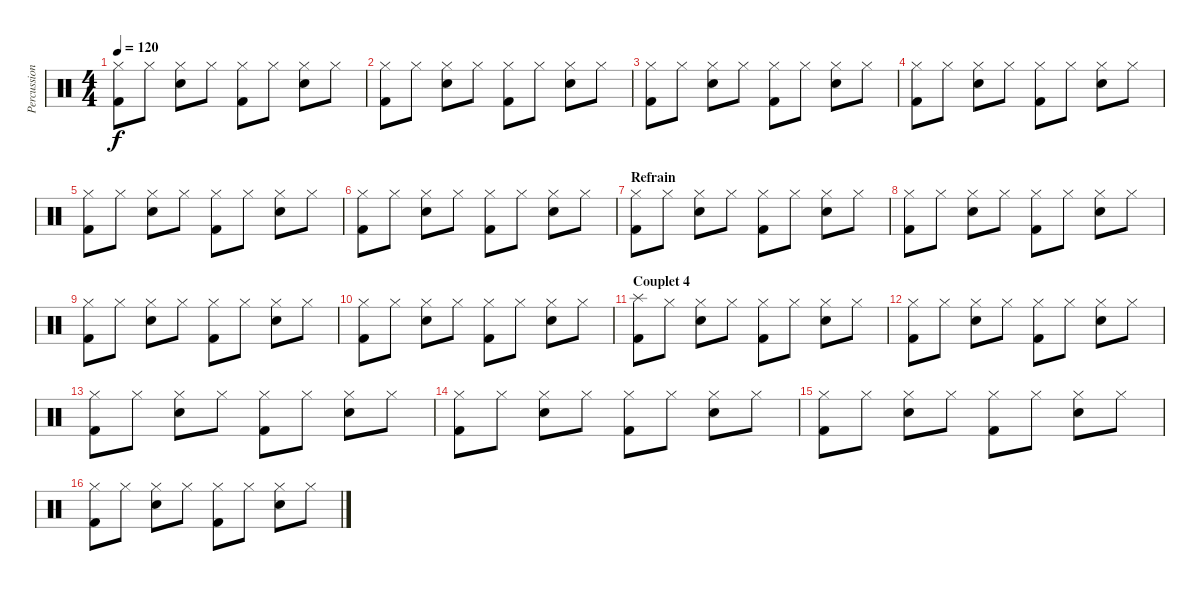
\track ("Percussions" "Percussion") {instrument percussion}
\staff {score}
\articulation defaults
\ts (4 4)
\tempo 120
\clef neutral
\ks c
("Kick (hit) 2" "Hi-Hat (closed)").8{dy f} "Hi-Hat (closed)".8 ("Electric Snare (hit)" "Hi-Hat (closed)").8 "Hi-Hat (closed)".8 ("Kick (hit) 2" "Hi-Hat (closed)").8 "Hi-Hat (closed)".8 ("Electric Snare (hit)" "Hi-Hat (closed)").8 "Hi-Hat (closed)".8 |
("Kick (hit) 2" "Hi-Hat (closed)").8 "Hi-Hat (closed)".8 ("Electric Snare (hit)" "Hi-Hat (closed)").8 "Hi-Hat (closed)".8 ("Kick (hit) 2" "Hi-Hat (closed)").8 "Hi-Hat (closed)".8 ("Electric Snare (hit)" "Hi-Hat (closed)").8 "Hi-Hat (closed)".8 |
("Kick (hit) 2" "Hi-Hat (closed)").8 "Hi-Hat (closed)".8 ("Electric Snare (hit)" "Hi-Hat (closed)").8 "Hi-Hat (closed)".8 ("Kick (hit) 2" "Hi-Hat (closed)").8 "Hi-Hat (closed)".8 ("Electric Snare (hit)" "Hi-Hat (closed)").8 "Hi-Hat (closed)".8 |
("Kick (hit) 2" "Hi-Hat (closed)").8 "Hi-Hat (closed)".8 ("Electric Snare (hit)" "Hi-Hat (closed)").8 "Hi-Hat (closed)".8 ("Kick (hit) 2" "Hi-Hat (closed)").8 "Hi-Hat (closed)".8 ("Electric Snare (hit)" "Hi-Hat (closed)").8 "Hi-Hat (closed)".8 |
("Kick (hit) 2" "Hi-Hat (closed)").8 "Hi-Hat (closed)".8 ("Electric Snare (hit)" "Hi-Hat (closed)").8 "Hi-Hat (closed)".8 ("Kick (hit) 2" "Hi-Hat (closed)").8 "Hi-Hat (closed)".8 ("Electric Snare (hit)" "Hi-Hat (closed)").8 "Hi-Hat (closed)".8 |
("Kick (hit) 2" "Hi-Hat (closed)").8 "Hi-Hat (closed)".8 ("Electric Snare (hit)" "Hi-Hat (closed)").8 "Hi-Hat (closed)".8 ("Kick (hit) 2" "Hi-Hat (closed)").8 "Hi-Hat (closed)".8 ("Electric Snare (hit)" "Hi-Hat (closed)").8 "Hi-Hat (closed)".8 |
\section ("" "Refrain")
("Kick (hit) 2" "Hi-Hat (closed)").8 "Hi-Hat (closed)".8 ("Electric Snare (hit)" "Hi-Hat (closed)").8 "Hi-Hat (closed)".8 ("Kick (hit) 2" "Hi-Hat (closed)").8 "Hi-Hat (closed)".8 ("Electric Snare (hit)" "Hi-Hat (closed)").8 "Hi-Hat (closed)".8 |
("Kick (hit) 2" "Hi-Hat (closed)").8 "Hi-Hat (closed)".8 ("Electric Snare (hit)" "Hi-Hat (closed)").8 "Hi-Hat (closed)".8 ("Kick (hit) 2" "Hi-Hat (closed)").8 "Hi-Hat (closed)".8 ("Electric Snare (hit)" "Hi-Hat (closed)").8 "Hi-Hat (closed)".8 |
("Kick (hit) 2" "Hi-Hat (closed)").8 "Hi-Hat (closed)".8 ("Electric Snare (hit)" "Hi-Hat (closed)").8 "Hi-Hat (closed)".8 ("Kick (hit) 2" "Hi-Hat (closed)").8 "Hi-Hat (closed)".8 ("Electric Snare (hit)" "Hi-Hat (closed)").8 "Hi-Hat (closed)".8 |
("Kick (hit) 2" "Hi-Hat (closed)").8 "Hi-Hat (closed)".8 ("Electric Snare (hit)" "Hi-Hat (closed)").8 "Hi-Hat (closed)".8 ("Kick (hit) 2" "Hi-Hat (closed)").8 "Hi-Hat (closed)".8 ("Electric Snare (hit)" "Hi-Hat (closed)").8 "Hi-Hat (closed)".8 |
\section ("" "Couplet 4")
("Kick (hit) 2" "Splash (hit)").8 "Hi-Hat (closed)".8 ("Electric Snare (hit)" "Hi-Hat (closed)").8 "Hi-Hat (closed)".8 ("Kick (hit) 2" "Hi-Hat (closed)").8 "Hi-Hat (closed)".8 ("Electric Snare (hit)" "Hi-Hat (closed)").8 "Hi-Hat (closed)".8 |
("Kick (hit) 2" "Hi-Hat (closed)").8 "Hi-Hat (closed)".8 ("Electric Snare (hit)" "Hi-Hat (closed)").8 "Hi-Hat (closed)".8 ("Kick (hit) 2" "Hi-Hat (closed)").8 "Hi-Hat (closed)".8 ("Electric Snare (hit)" "Hi-Hat (closed)").8 "Hi-Hat (closed)".8 |
("Kick (hit) 2" "Hi-Hat (closed)").8 "Hi-Hat (closed)".8 ("Electric Snare (hit)" "Hi-Hat (closed)").8 "Hi-Hat (closed)".8 ("Kick (hit) 2" "Hi-Hat (closed)").8 "Hi-Hat (closed)".8 ("Electric Snare (hit)" "Hi-Hat (closed)").8 "Hi-Hat (closed)".8 |
("Kick (hit) 2" "Hi-Hat (closed)").8 "Hi-Hat (closed)".8 ("Electric Snare (hit)" "Hi-Hat (closed)").8 "Hi-Hat (closed)".8 ("Kick (hit) 2" "Hi-Hat (closed)").8 "Hi-Hat (closed)".8 ("Electric Snare (hit)" "Hi-Hat (closed)").8 "Hi-Hat (closed)".8 |
("Kick (hit) 2" "Hi-Hat (closed)").8 "Hi-Hat (closed)".8 ("Electric Snare (hit)" "Hi-Hat (closed)").8 "Hi-Hat (closed)".8 ("Kick (hit) 2" "Hi-Hat (closed)").8 "Hi-Hat (closed)".8 ("Electric Snare (hit)" "Hi-Hat (closed)").8 "Hi-Hat (closed)".8 |
("Kick (hit) 2" "Hi-Hat (closed)").8 "Hi-Hat (closed)".8 ("Electric Snare (hit)" "Hi-Hat (closed)").8 "Hi-Hat (closed)".8 ("Kick (hit) 2" "Hi-Hat (closed)").8 "Hi-Hat (closed)".8 ("Electric Snare (hit)" "Hi-Hat (closed)").8 "Hi-Hat (closed)".8
